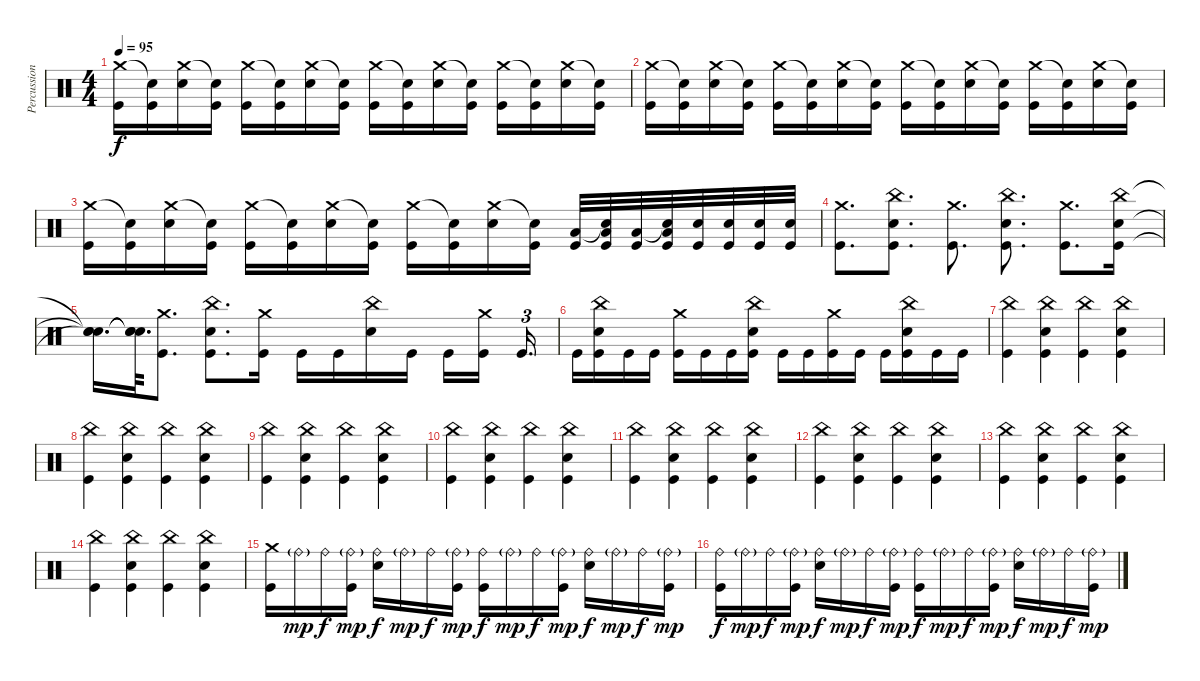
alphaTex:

\track ("Percussion" "Percussion") {instrument percussion}
\staff {score}
\articulation defaults
\ts (4 4)
\tempo 95
\clef neutral
\ks c
("Crash medium (hit)" "Kick (hit)").16{dy f} ("Snare (hit)"{t} "Kick (hit)").16 ("Crash medium (hit)" "Snare (hit) 2").16 ("Snare (hit)"{t} "Kick (hit)").16 ("Crash medium (hit)" "Kick (hit)").16 ("Snare (hit)"{t} "Kick (hit)").16 ("Crash medium (hit)" "Snare (hit) 2").16 ("Snare (hit)"{t} "Kick (hit)").16 ("Crash medium (hit)" "Kick (hit)").16 ("Snare (hit)"{t} "Kick (hit)").16 ("Crash medium (hit)" "Snare (hit) 2").16 ("Snare (hit)"{t} "Kick (hit)").16 ("Crash medium (hit)" "Kick (hit)").16 ("Snare (hit)"{t} "Kick (hit)").16 ("Crash medium (hit)" "Snare (hit) 2").16 ("Snare (hit)"{t} "Kick (hit)").16 |
("Crash medium (hit)" "Kick (hit)").16 ("Snare (hit)"{t} "Kick (hit)").16 ("Crash medium (hit)" "Snare (hit) 2").16 ("Snare (hit)"{t} "Kick (hit)").16 ("Crash medium (hit)" "Kick (hit)").16 ("Snare (hit)"{t} "Kick (hit)").16 ("Crash medium (hit)" "Snare (hit) 2").16 ("Snare (hit)"{t} "Kick (hit)").16 ("Crash medium (hit)" "Kick (hit)").16 ("Snare (hit)"{t} "Kick (hit)").16 ("Crash medium (hit)" "Snare (hit) 2").16 ("Snare (hit)"{t} "Kick (hit)").16 ("Crash medium (hit)" "Kick (hit)").16 ("Snare (hit)"{t} "Kick (hit)").16 ("Crash medium (hit)" "Snare (hit) 2").16 ("Snare (hit)"{t} "Kick (hit)").16 |
("Crash medium (hit)" "Kick (hit)").16 ("Snare (hit)"{t} "Kick (hit)").16 ("Crash medium (hit)" "Snare (hit) 2").16 ("Snare (hit)"{t} "Kick (hit)").16 ("Crash medium (hit)" "Kick (hit)").16 ("Snare (hit)"{t} "Kick (hit)").16 ("Crash medium (hit)" "Snare (hit) 2").16 ("Snare (hit)"{t} "Kick (hit)").16 ("Crash medium (hit)" "Kick (hit)").16 ("Snare (hit)"{t} "Kick (hit)").16 ("Crash medium (hit)" "Snare (hit) 2").16 ("Snare (hit)"{t} "Kick (hit)").16 ("Low Tom (hit)" "Kick (hit)").32 ("Snare (hit)"{t} "Low Tom (hit)" "Kick (hit)").32 ("Low Tom (hit)" "Kick (hit)").32 ("Snare (hit)"{t} "Low Tom (hit)" "Kick (hit)").32 ("Snare (hit) 2" "Kick (hit)").32 ("Snare (hit) 2" "Kick (hit)").32 ("Snare (hit) 2" "Kick (hit)").32 ("Snare (hit) 2" "Kick (hit)").32 |
("Crash medium (hit)" "Kick (hit)").8{d} ("China (hit)" "Snare (hit) 2" "Kick (hit)").8{d} ("Crash medium (hit)" "Kick (hit)").8{d} ("China (hit)" "Snare (hit) 2" "Kick (hit)").8{d} ("Crash medium (hit)" "Kick (hit)").8{d} ("China (hit)" "Snare (hit) 2" "Kick (hit)").16 |
("Snare (hit)"{t} "Snare (hit)"{t} "Snare (hit)"{t}).16{d} ("Snare (hit)"{t} "Snare (hit)"{t} "Snare (hit)"{t}).64{d} ("Crash medium (hit)" "Kick (hit)").8{d} ("China (hit)" "Snare (hit) 2" "Kick (hit)").8{d} ("Crash medium (hit)" "Kick (hit)").16 "Kick (hit)".16 "Kick (hit)".16 ("China (hit)" "Snare (hit) 2").16 "Kick (hit)".16 "Kick (hit)".16 ("Crash medium (hit)" "Kick (hit)").16{beam splitsecondary} "Kick (hit)".16{d tu (3 2)} |
"Kick (hit)".16 ("China (hit)" "Snare (hit) 2" "Kick (hit)").16 "Kick (hit)".16 "Kick (hit)".16 ("Crash medium (hit)" "Kick (hit)").16 "Kick (hit)".16 "Kick (hit)".16 ("China (hit)" "Snare (hit) 2" "Kick (hit)").16 "Kick (hit)".16 "Kick (hit)".16 ("Crash medium (hit)" "Kick (hit)").16 "Kick (hit)".16 "Kick (hit)".16 ("China (hit)" "Snare (hit) 2" "Kick (hit)").16 "Kick (hit)".16 "Kick (hit)".16 |
("China (hit)" "Kick (hit)").4 ("China (hit)" "Snare (hit) 2" "Kick (hit)").4 ("China (hit)" "Kick (hit)").4 ("China (hit)" "Snare (hit) 2" "Kick (hit)").4 |
("China (hit)" "Kick (hit)").4 ("China (hit)" "Snare (hit) 2" "Kick (hit)").4 ("China (hit)" "Kick (hit)").4 ("China (hit)" "Snare (hit) 2" "Kick (hit)").4 |
("China (hit)" "Kick (hit)").4 ("China (hit)" "Snare (hit) 2" "Kick (hit)").4 ("China (hit)" "Kick (hit)").4 ("China (hit)" "Snare (hit) 2" "Kick (hit)").4 |
("China (hit)" "Kick (hit)").4 ("China (hit)" "Snare (hit) 2" "Kick (hit)").4 ("China (hit)" "Kick (hit)").4 ("China (hit)" "Snare (hit) 2" "Kick (hit)").4 |
("China (hit)" "Kick (hit)").4 ("China (hit)" "Snare (hit) 2" "Kick (hit)").4 ("China (hit)" "Kick (hit)").4 ("China (hit)" "Snare (hit) 2" "Kick (hit)").4 |
("China (hit)" "Kick (hit)").4 ("China (hit)" "Snare (hit) 2" "Kick (hit)").4 ("China (hit)" "Kick (hit)").4 ("China (hit)" "Snare (hit) 2" "Kick (hit)").4 |
("China (hit)" "Kick (hit)").4 ("China (hit)" "Snare (hit) 2" "Kick (hit)").4 ("China (hit)" "Kick (hit)").4 ("China (hit)" "Snare (hit) 2" "Kick (hit)").4 |
("China (hit)" "Kick (hit)").4 ("China (hit)" "Snare (hit) 2" "Kick (hit)").4 ("China (hit)" "Kick (hit)").4 ("China (hit)" "Snare (hit) 2" "Kick (hit)").4 |
("Crash medium (hit)" "Kick (hit)").16 "Ride (bell)"{g}.16{dy mp} "Ride (bell)".16{dy f} ("Ride (bell)"{g} "Kick (hit)").16{dy mp} ("Ride (bell)" "Snare (hit) 2").16{dy f} "Ride (bell)"{g}.16{dy mp} "Ride (bell)".16{dy f} ("Ride (bell)"{g} "Kick (hit)").16{dy mp} ("Ride (bell)" "Kick (hit)").16{dy f} "Ride (bell)"{g}.16{dy mp} "Ride (bell)".16{dy f} ("Ride (bell)"{g} "Kick (hit)").16{dy mp} ("Ride (bell)" "Snare (hit) 2").16{dy f} "Ride (bell)"{g}.16{dy mp} "Ride (bell)".16{dy f} ("Ride (bell)"{g} "Kick (hit)").16{dy mp} |
("Ride (bell)" "Kick (hit)").16{dy f} "Ride (bell)"{g}.16{dy mp} "Ride (bell)".16{dy f} ("Ride (bell)"{g} "Kick (hit)").16{dy mp} ("Ride (bell)" "Snare (hit) 2").16{dy f} "Ride (bell)"{g}.16{dy mp} "Ride (bell)".16{dy f} ("Ride (bell)"{g} "Kick (hit)").16{dy mp} ("Ride (bell)" "Kick (hit)").16{dy f} "Ride (bell)"{g}.16{dy mp} "Ride (bell)".16{dy f} ("Ride (bell)"{g} "Kick (hit)").16{dy mp} ("Ride (bell)" "Snare (hit) 2").16{dy f} "Ride (bell)"{g}.16{dy mp} "Ride (bell)".16{dy f} ("Ride (bell)"{g} "Kick (hit)").16{dy mp}
